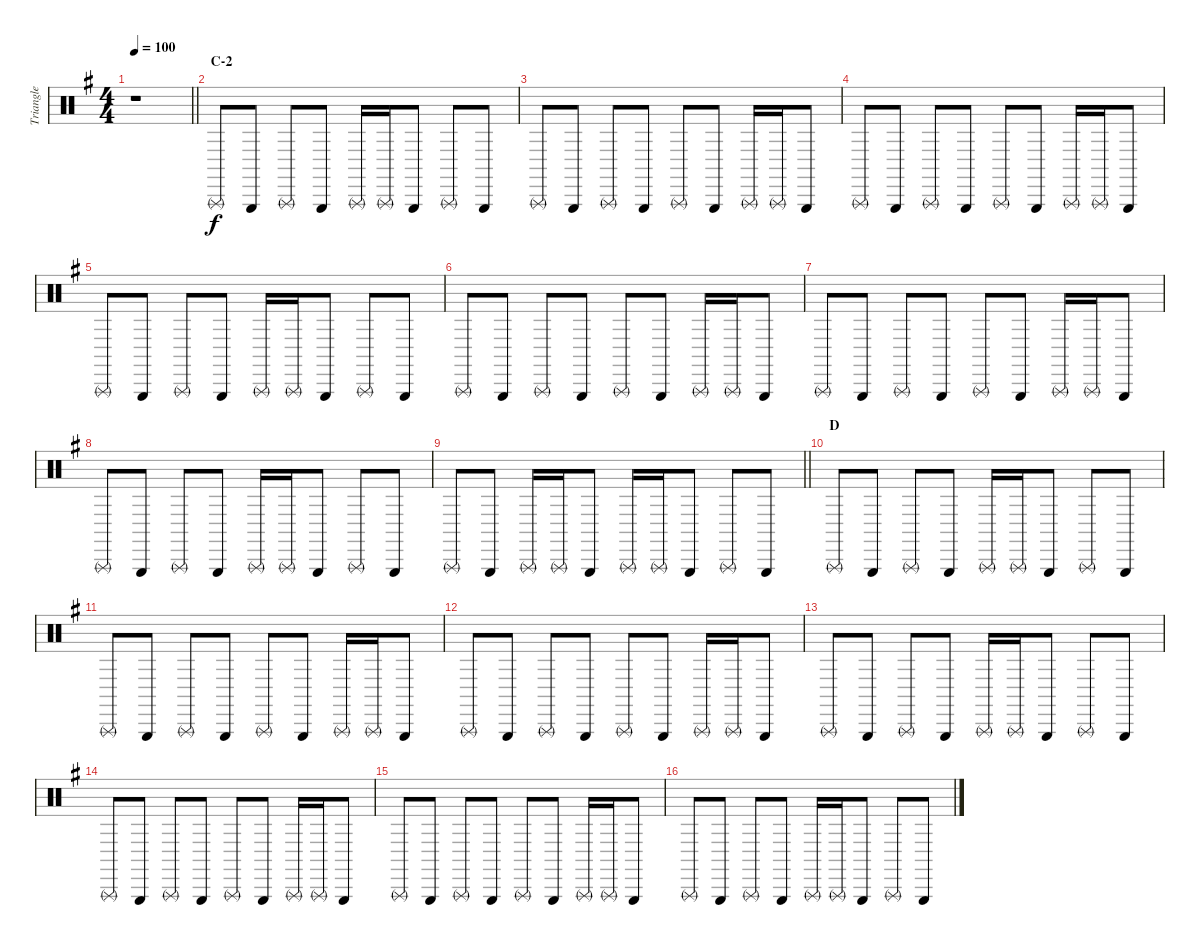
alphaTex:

\track ("Triangle" "Triangle") {instrument percussion}
\staff {score}
\articulation defaults
\ts (4 4)
\tempo 100
\clef neutral
\barLineRight lightlight
\ks g
r.1{dy f} |
\section ("" "C-2")
"Triangle (rnute)".8 "Triangle (hit)".8 "Triangle (rnute)".8 "Triangle (hit)".8 "Triangle (rnute)".16 "Triangle (rnute)".16 "Triangle (hit)".8 "Triangle (rnute)".8 "Triangle (hit)".8 |
"Triangle (rnute)".8 "Triangle (hit)".8 "Triangle (rnute)".8 "Triangle (hit)".8 "Triangle (rnute)".8 "Triangle (hit)".8 "Triangle (rnute)".16 "Triangle (rnute)".16 "Triangle (hit)".8 |
"Triangle (rnute)".8 "Triangle (hit)".8 "Triangle (rnute)".8 "Triangle (hit)".8 "Triangle (rnute)".8 "Triangle (hit)".8 "Triangle (rnute)".16 "Triangle (rnute)".16 "Triangle (hit)".8 |
"Triangle (rnute)".8 "Triangle (hit)".8 "Triangle (rnute)".8 "Triangle (hit)".8 "Triangle (rnute)".16 "Triangle (rnute)".16 "Triangle (hit)".8 "Triangle (rnute)".8 "Triangle (hit)".8 |
"Triangle (rnute)".8 "Triangle (hit)".8 "Triangle (rnute)".8 "Triangle (hit)".8 "Triangle (rnute)".8 "Triangle (hit)".8 "Triangle (rnute)".16 "Triangle (rnute)".16 "Triangle (hit)".8 |
"Triangle (rnute)".8 "Triangle (hit)".8 "Triangle (rnute)".8 "Triangle (hit)".8 "Triangle (rnute)".8 "Triangle (hit)".8 "Triangle (rnute)".16 "Triangle (rnute)".16 "Triangle (hit)".8 |
"Triangle (rnute)".8 "Triangle (hit)".8 "Triangle (rnute)".8 "Triangle (hit)".8 "Triangle (rnute)".16 "Triangle (rnute)".16 "Triangle (hit)".8 "Triangle (rnute)".8 "Triangle (hit)".8 |
\barLineRight lightlight "Triangle (rnute)".8 "Triangle (hit)".8 "Triangle (rnute)".16 "Triangle (rnute)".16 "Triangle (hit)".8 "Triangle (rnute)".16 "Triangle (rnute)".16 "Triangle (hit)".8 "Triangle (rnute)".8 "Triangle (hit)".8
|
\section ("" "D")
"Triangle (rnute)".8 "Triangle (hit)".8 "Triangle (rnute)".8 "Triangle (hit)".8 "Triangle (rnute)".16 "Triangle (rnute)".16 "Triangle (hit)".8 "Triangle (rnute)".8 "Triangle (hit)".8 |
"Triangle (rnute)".8 "Triangle (hit)".8 "Triangle (rnute)".8 "Triangle (hit)".8 "Triangle (rnute)".8 "Triangle (hit)".8 "Triangle (rnute)".16 "Triangle (rnute)".16 "Triangle (hit)".8 |
"Triangle (rnute)".8 "Triangle (hit)".8 "Triangle (rnute)".8 "Triangle (hit)".8 "Triangle (rnute)".8 "Triangle (hit)".8 "Triangle (rnute)".16 "Triangle (rnute)".16 "Triangle (hit)".8 |
"Triangle (rnute)".8 "Triangle (hit)".8 "Triangle (rnute)".8 "Triangle (hit)".8 "Triangle (rnute)".16 "Triangle (rnute)".16 "Triangle (hit)".8 "Triangle (rnute)".8 "Triangle (hit)".8 |
"Triangle (rnute)".8 "Triangle (hit)".8 "Triangle (rnute)".8 "Triangle (hit)".8 "Triangle (rnute)".8 "Triangle (hit)".8 "Triangle (rnute)".16 "Triangle (rnute)".16 "Triangle (hit)".8 |
"Triangle (rnute)".8 "Triangle (hit)".8 "Triangle (rnute)".8 "Triangle (hit)".8 "Triangle (rnute)".8 "Triangle (hit)".8 "Triangle (rnute)".16 "Triangle (rnute)".16 "Triangle (hit)".8 |
"Triangle (rnute)".8 "Triangle (hit)".8 "Triangle (rnute)".8 "Triangle (hit)".8 "Triangle (rnute)".16 "Triangle (rnute)".16 "Triangle (hit)".8 "Triangle (rnute)".8 "Triangle (hit)".8
